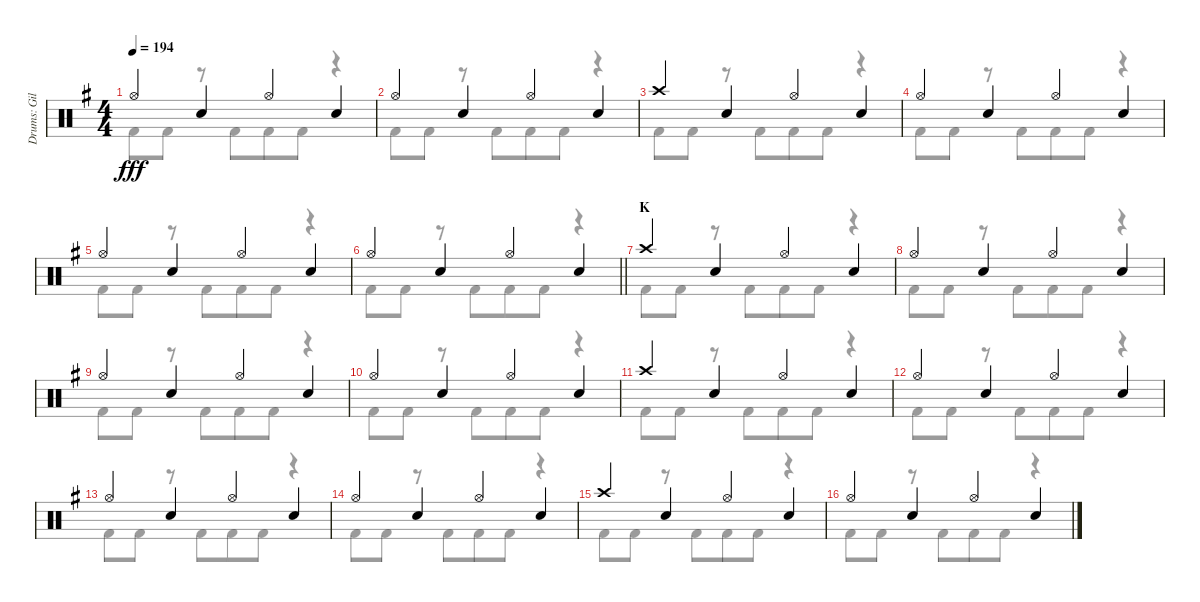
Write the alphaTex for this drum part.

\track ("Drums: Gil" "Drums: Gil") {instrument percussion}
\staff {score}
\articulation defaults
\voice
\ts (4 4)
\tempo 194
\clef neutral
\ks g "Hi-Hat (open)".4{dy fff} "Snare (hit) 2".4 "Hi-Hat (open)".4 "Snare (hit) 2".4
|
"Hi-Hat (open)".4 "Snare (hit) 2".4 "Hi-Hat (open)".4 "Snare (hit) 2".4 |
"Crash high (hit)".4 "Snare (hit) 2".4 "Hi-Hat (open)".4 "Snare (hit) 2".4 |
"Hi-Hat (open)".4 "Snare (hit) 2".4 "Hi-Hat (open)".4 "Snare (hit) 2".4 |
"Hi-Hat (open)".4 "Snare (hit) 2".4 "Hi-Hat (open)".4 "Snare (hit) 2".4 |
\barLineRight lightlight "Hi-Hat (open)".4 "Snare (hit) 2".4 "Hi-Hat (open)".4 "Snare (hit) 2".4
|
\section ("" "K")
"Crash high (hit)".4 "Snare (hit) 2".4 "Hi-Hat (open)".4 "Snare (hit) 2".4 |
"Hi-Hat (open)".4 "Snare (hit) 2".4 "Hi-Hat (open)".4 "Snare (hit) 2".4 |
"Hi-Hat (open)".4 "Snare (hit) 2".4 "Hi-Hat (open)".4 "Snare (hit) 2".4 |
"Hi-Hat (open)".4 "Snare (hit) 2".4 "Hi-Hat (open)".4 "Snare (hit) 2".4 |
"Crash high (hit)".4 "Snare (hit) 2".4 "Hi-Hat (open)".4 "Snare (hit) 2".4 |
"Hi-Hat (open)".4 "Snare (hit) 2".4 "Hi-Hat (open)".4 "Snare (hit) 2".4 |
"Hi-Hat (open)".4 "Snare (hit) 2".4 "Hi-Hat (open)".4 "Snare (hit) 2".4 |
"Hi-Hat (open)".4 "Snare (hit) 2".4 "Hi-Hat (open)".4 "Snare (hit) 2".4 |
"Crash high (hit)".4 "Snare (hit) 2".4 "Hi-Hat (open)".4 "Snare (hit) 2".4 |
"Hi-Hat (open)".4 "Snare (hit) 2".4 "Hi-Hat (open)".4 "Snare (hit) 2".4
\voice
\clef neutral
\ottava regular
\simile none
\ks g "Kick (hit) 2".8{dy fff} "Kick (hit) 2".8
r.8 "Kick (hit) 2".8{beam merge} "Kick (hit) 2".8 "Kick (hit) 2".8 r.4 |
"Kick (hit) 2".8 "Kick (hit) 2".8 r.8 "Kick (hit) 2".8{beam merge} "Kick (hit) 2".8 "Kick (hit) 2".8 r.4 |
"Kick (hit) 2".8 "Kick (hit) 2".8 r.8 "Kick (hit) 2".8{beam merge} "Kick (hit) 2".8 "Kick (hit) 2".8 r.4 |
"Kick (hit) 2".8 "Kick (hit) 2".8 r.8 "Kick (hit) 2".8{beam merge} "Kick (hit) 2".8 "Kick (hit) 2".8 r.4 |
"Kick (hit) 2".8 "Kick (hit) 2".8 r.8 "Kick (hit) 2".8{beam merge} "Kick (hit) 2".8 "Kick (hit) 2".8 r.4 |
\barLineRight lightlight "Kick (hit) 2".8 "Kick (hit) 2".8
r.8 "Kick (hit) 2".8{beam merge} "Kick (hit) 2".8 "Kick (hit) 2".8 r.4 |
"Kick (hit) 2".8 "Kick (hit) 2".8 r.8 "Kick (hit) 2".8{beam merge} "Kick (hit) 2".8 "Kick (hit) 2".8 r.4 |
"Kick (hit) 2".8 "Kick (hit) 2".8 r.8 "Kick (hit) 2".8{beam merge} "Kick (hit) 2".8 "Kick (hit) 2".8 r.4 |
"Kick (hit) 2".8 "Kick (hit) 2".8 r.8 "Kick (hit) 2".8{beam merge} "Kick (hit) 2".8 "Kick (hit) 2".8 r.4 |
"Kick (hit) 2".8 "Kick (hit) 2".8 r.8 "Kick (hit) 2".8{beam merge} "Kick (hit) 2".8 "Kick (hit) 2".8 r.4 |
"Kick (hit) 2".8 "Kick (hit) 2".8 r.8 "Kick (hit) 2".8{beam merge} "Kick (hit) 2".8 "Kick (hit) 2".8 r.4 |
"Kick (hit) 2".8 "Kick (hit) 2".8 r.8 "Kick (hit) 2".8{beam merge} "Kick (hit) 2".8 "Kick (hit) 2".8 r.4 |
"Kick (hit) 2".8 "Kick (hit) 2".8 r.8 "Kick (hit) 2".8{beam merge} "Kick (hit) 2".8 "Kick (hit) 2".8 r.4 |
"Kick (hit) 2".8 "Kick (hit) 2".8 r.8 "Kick (hit) 2".8{beam merge} "Kick (hit) 2".8 "Kick (hit) 2".8 r.4 |
"Kick (hit) 2".8 "Kick (hit) 2".8 r.8 "Kick (hit) 2".8{beam merge} "Kick (hit) 2".8 "Kick (hit) 2".8 r.4 |
"Kick (hit) 2".8 "Kick (hit) 2".8 r.8 "Kick (hit) 2".8{beam merge} "Kick (hit) 2".8 "Kick (hit) 2".8 r.4
